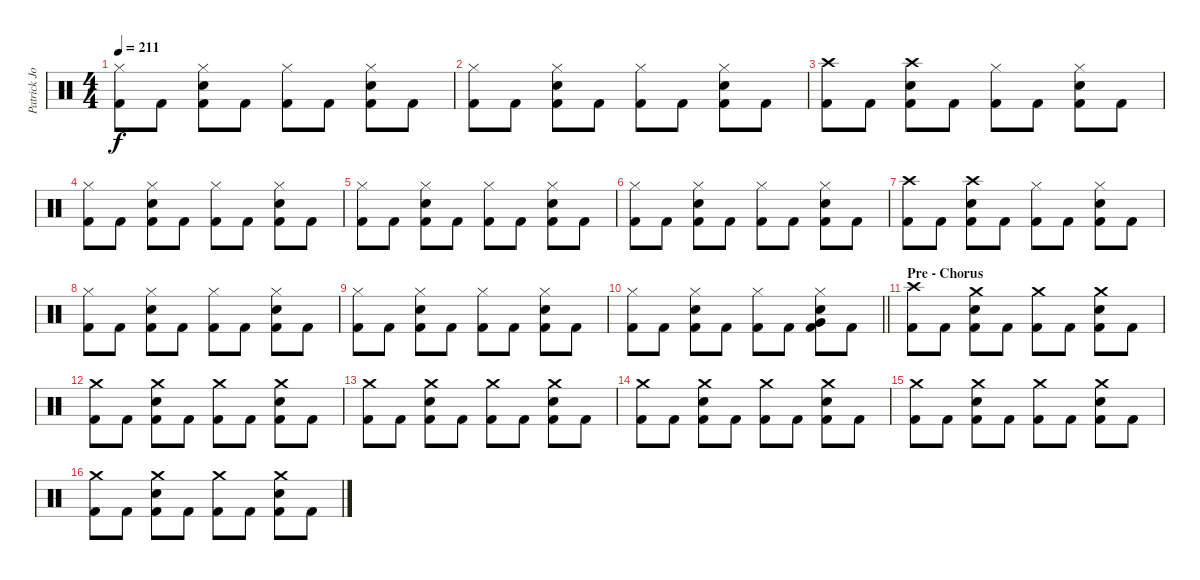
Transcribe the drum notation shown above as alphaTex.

\track ("Patrick Johansson" "Patrick Jo") {instrument percussion}
\staff {score}
\articulation defaults
\ts (4 4)
\tempo 211
\clef neutral
\ks c
("Hi-Hat (closed)" "Kick (hit) 2").8{dy f} "Kick (hit) 2".8 ("Electric Snare (hit)" "Hi-Hat (closed)" "Kick (hit) 2").8 "Kick (hit) 2".8 ("Hi-Hat (closed)" "Kick (hit) 2").8 "Kick (hit) 2".8 ("Electric Snare (hit)" "Hi-Hat (closed)" "Kick (hit) 2").8 "Kick (hit) 2".8 |
("Hi-Hat (closed)" "Kick (hit) 2").8 "Kick (hit) 2".8 ("Electric Snare (hit)" "Hi-Hat (closed)" "Kick (hit) 2").8 "Kick (hit) 2".8 ("Hi-Hat (closed)" "Kick (hit) 2").8 "Kick (hit) 2".8 ("Electric Snare (hit)" "Hi-Hat (closed)" "Kick (hit) 2").8 "Kick (hit) 2".8 |
("Crash high (hit)" "Kick (hit) 2").8 "Kick (hit) 2".8 ("Crash high (hit)" "Electric Snare (hit)" "Kick (hit) 2").8 "Kick (hit) 2".8 ("Hi-Hat (closed)" "Kick (hit) 2").8 "Kick (hit) 2".8 ("Electric Snare (hit)" "Hi-Hat (closed)" "Kick (hit) 2").8 "Kick (hit) 2".8 |
("Hi-Hat (closed)" "Kick (hit) 2").8 "Kick (hit) 2".8 ("Electric Snare (hit)" "Hi-Hat (closed)" "Kick (hit) 2").8 "Kick (hit) 2".8 ("Hi-Hat (closed)" "Kick (hit) 2").8 "Kick (hit) 2".8 ("Electric Snare (hit)" "Hi-Hat (closed)" "Kick (hit) 2").8 "Kick (hit) 2".8 |
("Hi-Hat (closed)" "Kick (hit) 2").8 "Kick (hit) 2".8 ("Electric Snare (hit)" "Hi-Hat (closed)" "Kick (hit) 2").8 "Kick (hit) 2".8 ("Hi-Hat (closed)" "Kick (hit) 2").8 "Kick (hit) 2".8 ("Electric Snare (hit)" "Hi-Hat (closed)" "Kick (hit) 2").8 "Kick (hit) 2".8 |
("Hi-Hat (closed)" "Kick (hit) 2").8 "Kick (hit) 2".8 ("Electric Snare (hit)" "Hi-Hat (closed)" "Kick (hit) 2").8 "Kick (hit) 2".8 ("Hi-Hat (closed)" "Kick (hit) 2").8 "Kick (hit) 2".8 ("Electric Snare (hit)" "Hi-Hat (closed)" "Kick (hit) 2").8 "Kick (hit) 2".8 |
("Crash high (hit)" "Kick (hit) 2").8 "Kick (hit) 2".8 ("Crash high (hit)" "Electric Snare (hit)" "Kick (hit) 2").8 "Kick (hit) 2".8 ("Hi-Hat (closed)" "Kick (hit) 2").8 "Kick (hit) 2".8 ("Electric Snare (hit)" "Hi-Hat (closed)" "Kick (hit) 2").8 "Kick (hit) 2".8 |
("Hi-Hat (closed)" "Kick (hit) 2").8 "Kick (hit) 2".8 ("Electric Snare (hit)" "Hi-Hat (closed)" "Kick (hit) 2").8 "Kick (hit) 2".8 ("Hi-Hat (closed)" "Kick (hit) 2").8 "Kick (hit) 2".8 ("Electric Snare (hit)" "Hi-Hat (closed)" "Kick (hit) 2").8 "Kick (hit) 2".8 |
("Hi-Hat (closed)" "Kick (hit) 2").8 "Kick (hit) 2".8 ("Electric Snare (hit)" "Hi-Hat (closed)" "Kick (hit) 2").8 "Kick (hit) 2".8 ("Hi-Hat (closed)" "Kick (hit) 2").8 "Kick (hit) 2".8 ("Electric Snare (hit)" "Hi-Hat (closed)" "Kick (hit) 2").8 "Kick (hit) 2".8 |
\barLineRight lightlight
("Hi-Hat (closed)" "Kick (hit) 2").8 "Kick (hit) 2".8 ("Electric Snare (hit)" "Hi-Hat (closed)" "Kick (hit) 2").8 "Kick (hit) 2".8 ("Hi-Hat (closed)" "Kick (hit) 2").8 "Kick (hit) 2".8 ("Very Low Tom (hit)" "Electric Snare (hit)" "Hi-Hat (closed)" "Kick (hit) 2").8 "Kick (hit) 2".8 |
\section ("" "Pre - Chorus")
("Crash high (hit)" "Kick (hit) 2").8 "Kick (hit) 2".8 ("Crash medium (hit)" "Electric Snare (hit)" "Kick (hit) 2").8 "Kick (hit) 2".8 ("Crash medium (hit)" "Kick (hit) 2").8 "Kick (hit) 2".8 ("Crash medium (hit)" "Electric Snare (hit)" "Kick (hit) 2").8 "Kick (hit) 2".8 |
("Crash medium (hit)" "Kick (hit) 2").8 "Kick (hit) 2".8 ("Crash medium (hit)" "Electric Snare (hit)" "Kick (hit) 2").8 "Kick (hit) 2".8 ("Crash medium (hit)" "Kick (hit) 2").8 "Kick (hit) 2".8 ("Crash medium (hit)" "Electric Snare (hit)" "Kick (hit) 2").8 "Kick (hit) 2".8 |
("Crash medium (hit)" "Kick (hit) 2").8 "Kick (hit) 2".8 ("Crash medium (hit)" "Electric Snare (hit)" "Kick (hit) 2").8 "Kick (hit) 2".8 ("Crash medium (hit)" "Kick (hit) 2").8 "Kick (hit) 2".8 ("Crash medium (hit)" "Electric Snare (hit)" "Kick (hit) 2").8 "Kick (hit) 2".8 |
("Crash medium (hit)" "Kick (hit) 2").8 "Kick (hit) 2".8 ("Crash medium (hit)" "Electric Snare (hit)" "Kick (hit) 2").8 "Kick (hit) 2".8 ("Crash medium (hit)" "Kick (hit) 2").8 "Kick (hit) 2".8 ("Crash medium (hit)" "Electric Snare (hit)" "Kick (hit) 2").8 "Kick (hit) 2".8 |
("Crash medium (hit)" "Kick (hit) 2").8 "Kick (hit) 2".8 ("Crash medium (hit)" "Electric Snare (hit)" "Kick (hit) 2").8 "Kick (hit) 2".8 ("Crash medium (hit)" "Kick (hit) 2").8 "Kick (hit) 2".8 ("Crash medium (hit)" "Electric Snare (hit)" "Kick (hit) 2").8 "Kick (hit) 2".8 |
("Crash medium (hit)" "Kick (hit) 2").8 "Kick (hit) 2".8 ("Crash medium (hit)" "Electric Snare (hit)" "Kick (hit) 2").8 "Kick (hit) 2".8 ("Crash medium (hit)" "Kick (hit) 2").8 "Kick (hit) 2".8 ("Crash medium (hit)" "Electric Snare (hit)" "Kick (hit) 2").8 "Kick (hit) 2".8
